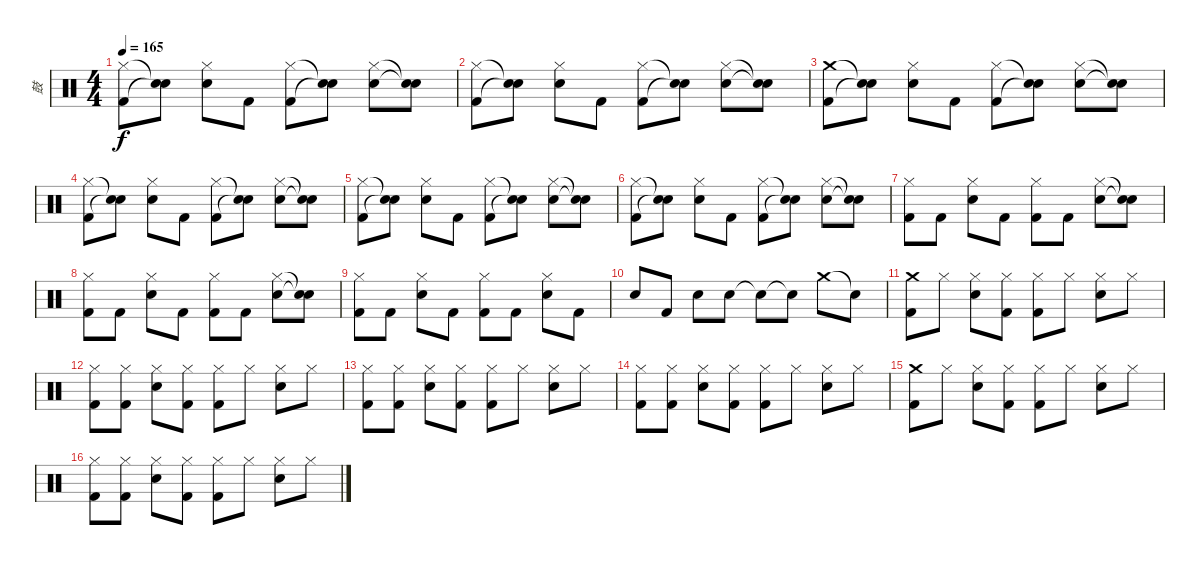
\track ("鼓" "鼓") {instrument percussion}
\staff {score}
\articulation defaults
\ts (4 4)
\tempo 165
\clef neutral
\ks c
("Hi-Hat (closed)" "Kick (hit) 2").8{dy f} ("Snare (hit)"{t} "Snare (hit)"{t}).8 ("Hi-Hat (closed)" "Snare (hit) 2").8 "Kick (hit) 2".8 ("Hi-Hat (closed)" "Kick (hit) 2").8 ("Snare (hit)"{t} "Snare (hit)"{t}).8 ("Hi-Hat (closed)" "Snare (hit) 2").8 ("Snare (hit)"{t} "Snare (hit)"{t}).8 |
("Hi-Hat (closed)" "Kick (hit) 2").8 ("Snare (hit)"{t} "Snare (hit)"{t}).8 ("Hi-Hat (closed)" "Snare (hit) 2").8 "Kick (hit) 2".8 ("Hi-Hat (closed)" "Kick (hit) 2").8 ("Snare (hit)"{t} "Snare (hit)"{t}).8 ("Hi-Hat (closed)" "Snare (hit) 2").8 ("Snare (hit)"{t} "Snare (hit)"{t}).8 |
("Crash medium (hit)" "Kick (hit) 2").8 ("Snare (hit)"{t} "Snare (hit)"{t}).8 ("Hi-Hat (closed)" "Snare (hit) 2").8 "Kick (hit) 2".8 ("Hi-Hat (closed)" "Kick (hit) 2").8 ("Snare (hit)"{t} "Snare (hit)"{t}).8 ("Hi-Hat (closed)" "Snare (hit) 2").8 ("Snare (hit)"{t} "Snare (hit)"{t}).8 |
("Hi-Hat (closed)" "Kick (hit) 2").8 ("Snare (hit)"{t} "Snare (hit)"{t}).8 ("Hi-Hat (closed)" "Snare (hit) 2").8 "Kick (hit) 2".8 ("Hi-Hat (closed)" "Kick (hit) 2").8 ("Snare (hit)"{t} "Snare (hit)"{t}).8 ("Hi-Hat (closed)" "Snare (hit) 2").8 ("Snare (hit)"{t} "Snare (hit)"{t}).8 |
("Hi-Hat (closed)" "Kick (hit) 2").8 ("Snare (hit)"{t} "Snare (hit)"{t}).8 ("Hi-Hat (closed)" "Snare (hit) 2").8 "Kick (hit) 2".8 ("Hi-Hat (closed)" "Kick (hit) 2").8 ("Snare (hit)"{t} "Snare (hit)"{t}).8 ("Hi-Hat (closed)" "Snare (hit) 2").8 ("Snare (hit)"{t} "Snare (hit)"{t}).8 |
("Hi-Hat (closed)" "Kick (hit) 2").8 ("Snare (hit)"{t} "Snare (hit)"{t}).8 ("Hi-Hat (closed)" "Snare (hit) 2").8 "Kick (hit) 2".8 ("Hi-Hat (closed)" "Kick (hit) 2").8 ("Snare (hit)"{t} "Snare (hit)"{t}).8 ("Hi-Hat (closed)" "Snare (hit) 2").8 ("Snare (hit)"{t} "Snare (hit)"{t}).8 |
("Hi-Hat (closed)" "Kick (hit) 2").8 "Kick (hit) 2".8 ("Hi-Hat (closed)" "Snare (hit) 2").8 "Kick (hit) 2".8 ("Hi-Hat (closed)" "Kick (hit) 2").8 "Kick (hit) 2".8 ("Hi-Hat (closed)" "Snare (hit) 2").8 ("Snare (hit)"{t} "Snare (hit)"{t}).8 |
("Hi-Hat (closed)" "Kick (hit) 2").8 "Kick (hit) 2".8 ("Hi-Hat (closed)" "Snare (hit) 2").8 "Kick (hit) 2".8 ("Hi-Hat (closed)" "Kick (hit) 2").8 "Kick (hit) 2".8 ("Hi-Hat (closed)" "Snare (hit) 2").8 ("Snare (hit)"{t} "Snare (hit)"{t}).8 |
("Hi-Hat (closed)" "Kick (hit) 2").8 "Kick (hit) 2".8 ("Hi-Hat (closed)" "Snare (hit) 2").8 "Kick (hit) 2".8 ("Hi-Hat (closed)" "Kick (hit) 2").8 "Kick (hit) 2".8 ("Hi-Hat (closed)" "Snare (hit) 2").8 "Kick (hit) 2".8 |
"Snare (hit) 2".8 "Kick (hit) 2".8 "Snare (hit) 2".8 "Snare (hit) 2".8 "Snare (hit)"{t}.8 "Snare (hit)"{t}.8 "Crash medium (hit)".8 "Snare (hit)"{t}.8 |
("Crash medium (hit)" "Kick (hit) 2").8 "Hi-Hat (closed)".8 ("Hi-Hat (closed)" "Snare (hit) 2").8 ("Hi-Hat (closed)" "Kick (hit) 2").8 ("Hi-Hat (closed)" "Kick (hit) 2").8 "Hi-Hat (closed)".8 ("Hi-Hat (closed)" "Snare (hit) 2").8 "Hi-Hat (closed)".8 |
("Hi-Hat (closed)" "Kick (hit) 2").8 ("Hi-Hat (closed)" "Kick (hit) 2").8 ("Hi-Hat (closed)" "Snare (hit) 2").8 ("Hi-Hat (closed)" "Kick (hit) 2").8 ("Hi-Hat (closed)" "Kick (hit) 2").8 "Hi-Hat (closed)".8 ("Hi-Hat (closed)" "Snare (hit) 2").8 "Hi-Hat (closed)".8 |
("Hi-Hat (closed)" "Kick (hit) 2").8 ("Hi-Hat (closed)" "Kick (hit) 2").8 ("Hi-Hat (closed)" "Snare (hit) 2").8 ("Hi-Hat (closed)" "Kick (hit) 2").8 ("Hi-Hat (closed)" "Kick (hit) 2").8 "Hi-Hat (closed)".8 ("Hi-Hat (closed)" "Snare (hit) 2").8 "Hi-Hat (closed)".8 |
("Hi-Hat (closed)" "Kick (hit) 2").8 ("Hi-Hat (closed)" "Kick (hit) 2").8 ("Hi-Hat (closed)" "Snare (hit) 2").8 ("Hi-Hat (closed)" "Kick (hit) 2").8 ("Hi-Hat (closed)" "Kick (hit) 2").8 "Hi-Hat (closed)".8 ("Hi-Hat (closed)" "Snare (hit) 2").8 "Hi-Hat (closed)".8 |
("Crash medium (hit)" "Kick (hit) 2").8 "Hi-Hat (closed)".8 ("Hi-Hat (closed)" "Snare (hit) 2").8 ("Hi-Hat (closed)" "Kick (hit) 2").8 ("Hi-Hat (closed)" "Kick (hit) 2").8 "Hi-Hat (closed)".8 ("Hi-Hat (closed)" "Snare (hit) 2").8 "Hi-Hat (closed)".8 |
("Hi-Hat (closed)" "Kick (hit) 2").8 ("Hi-Hat (closed)" "Kick (hit) 2").8 ("Hi-Hat (closed)" "Snare (hit) 2").8 ("Hi-Hat (closed)" "Kick (hit) 2").8 ("Hi-Hat (closed)" "Kick (hit) 2").8 "Hi-Hat (closed)".8 ("Hi-Hat (closed)" "Snare (hit) 2").8 "Hi-Hat (closed)".8
